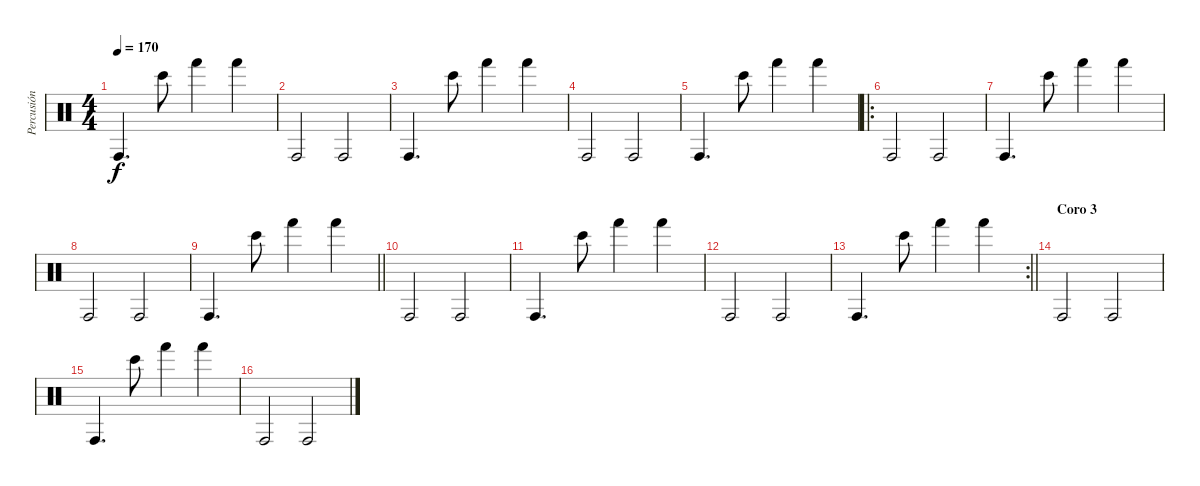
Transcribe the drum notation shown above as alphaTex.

\track ("Percusión" "Percusión") {instrument percussion}
\staff {score}
\articulation defaults
\ts (4 4)
\tempo 170
\clef neutral
\ks c "Conga high (hit)".4{d dy f} "Bongo High (hit)".8 "Hand (hit)".4 "Hand (hit)".4
|
"Conga high (hit)".2 "Conga high (hit)".2 |
"Conga high (hit)".4{d} "Bongo High (hit)".8 "Hand (hit)".4 "Hand (hit)".4 |
"Conga high (hit)".2 "Conga high (hit)".2 |
"Conga high (hit)".4{d} "Bongo High (hit)".8 "Hand (hit)".4 "Hand (hit)".4 |
\ro "Conga high (hit)".2 "Conga high (hit)".2
|
"Conga high (hit)".4{d} "Bongo High (hit)".8 "Hand (hit)".4 "Hand (hit)".4 |
"Conga high (hit)".2 "Conga high (hit)".2 |
\barLineRight lightlight "Conga high (hit)".4{d} "Bongo High (hit)".8 "Hand (hit)".4 "Hand (hit)".4
|
"Conga high (hit)".2 "Conga high (hit)".2 |
"Conga high (hit)".4{d} "Bongo High (hit)".8 "Hand (hit)".4 "Hand (hit)".4 |
"Conga high (hit)".2 "Conga high (hit)".2 |
\rc 2
\barLineRight lightlight "Conga high (hit)".4{d} "Bongo High (hit)".8 "Hand (hit)".4 "Hand (hit)".4
|
\section ("" "Coro 3")
"Conga high (hit)".2 "Conga high (hit)".2 |
"Conga high (hit)".4{d} "Bongo High (hit)".8 "Hand (hit)".4 "Hand (hit)".4 |
"Conga high (hit)".2 "Conga high (hit)".2
